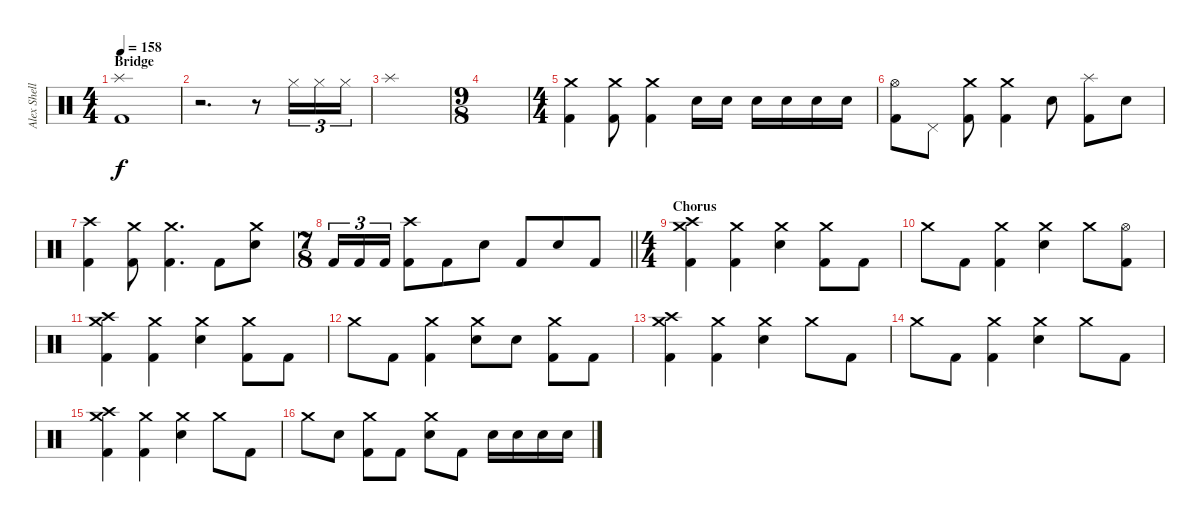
\track ("Alex Shellnut" "Alex Shell") {instrument percussion}
\staff {score}
\articulation defaults
\ts (4 4)
\section ("" "Bridge")
\tempo 158
\clef neutral
\ks c
("Splash (hit)" "Kick (hit) 2").1{dy f} |
r.2{d} r.8 "Hi-Hat (closed)".16{tu (3 2)} "Hi-Hat (closed)".16{tu (3 2)} "Hi-Hat (closed)".16{tu (3 2)} |
"Splash (hit)".1 |
\ts (9 8)
|
\ts (4 4)
("Crash medium (hit)" "Kick (hit) 2").4 ("Crash medium (hit)" "Kick (hit) 2").8 ("Crash medium (hit)" "Kick (hit) 2").4 "Electric Snare (hit)".16 "Electric Snare (hit)".16 "Electric Snare (hit)".16 "Electric Snare (hit)".16 "Electric Snare (hit)".16 "Electric Snare (hit)".16 |
("Hi-Hat (open)" "Kick (hit) 2").8 "Pedal Hi-Hat (hit)".8 ("Crash medium (hit)" "Kick (hit) 2").8 ("Crash medium (hit)" "Kick (hit) 2").4 "Electric Snare (hit)".8 ("Splash (hit)" "Kick (hit) 2").8 "Electric Snare (hit)".8 |
("Crash high (hit)" "Kick (hit) 2").4 ("Crash medium (hit)" "Kick (hit) 2").8 ("Crash medium (hit)" "Kick (hit) 2").4{d} "Kick (hit) 2".8 ("Crash medium (hit)" "Electric Snare (hit)").8 |
\ts (7 8)
\barLineRight lightlight "Kick (hit) 2".16{tu (3 2)} "Kick (hit) 2".16{tu (3 2)} "Kick (hit) 2".16{tu (3 2)}
("Crash high (hit)" "Kick (hit) 2").8 "Kick (hit) 2".8 "Electric Snare (hit)".8 "Kick (hit) 2".8 "Electric Snare (hit)".8 "Kick (hit) 2".8 |
\ts (4 4)
\section ("" "Chorus")
("Crash medium (hit)" "Crash high (hit)" "Kick (hit) 2").4 ("Crash medium (hit)" "Kick (hit) 2").4 ("Crash medium (hit)" "Electric Snare (hit)").4 ("Crash medium (hit)" "Kick (hit) 2").8 "Kick (hit) 2".8 |
"Crash medium (hit)".8 "Kick (hit) 2".8 ("Crash medium (hit)" "Kick (hit) 2").4 ("Crash medium (hit)" "Electric Snare (hit)").4 "Crash medium (hit)".8 ("Hi-Hat (open)" "Kick (hit) 2").8 |
("Crash medium (hit)" "Crash high (hit)" "Kick (hit) 2").4 ("Crash medium (hit)" "Kick (hit) 2").4 ("Crash medium (hit)" "Electric Snare (hit)").4 ("Crash medium (hit)" "Kick (hit) 2").8 "Kick (hit) 2".8 |
"Crash medium (hit)".8 "Kick (hit) 2".8 ("Crash medium (hit)" "Kick (hit) 2").4 ("Crash medium (hit)" "Electric Snare (hit)").8 "Electric Snare (hit)".8 ("Crash medium (hit)" "Kick (hit) 2").8 "Kick (hit) 2".8 |
("Crash medium (hit)" "Crash high (hit)" "Kick (hit) 2").4 ("Crash medium (hit)" "Kick (hit) 2").4 ("Crash medium (hit)" "Electric Snare (hit)").4 "Crash medium (hit)".8 "Kick (hit) 2".8 |
"Crash medium (hit)".8 "Kick (hit) 2".8 ("Crash medium (hit)" "Kick (hit) 2").4 ("Crash medium (hit)" "Electric Snare (hit)").4 "Crash medium (hit)".8 "Kick (hit) 2".8 |
("Crash medium (hit)" "Crash high (hit)" "Kick (hit) 2").4 ("Crash medium (hit)" "Kick (hit) 2").4 ("Crash medium (hit)" "Electric Snare (hit)").4 "Crash medium (hit)".8 "Kick (hit) 2".8 |
"Crash medium (hit)".8 "Electric Snare (hit)".8 ("Crash medium (hit)" "Kick (hit) 2").8 "Kick (hit) 2".8 ("Crash medium (hit)" "Electric Snare (hit)").8 "Kick (hit) 2".8 "Electric Snare (hit)".16 "Electric Snare (hit)".16 "Electric Snare (hit)".16 "Electric Snare (hit)".16
